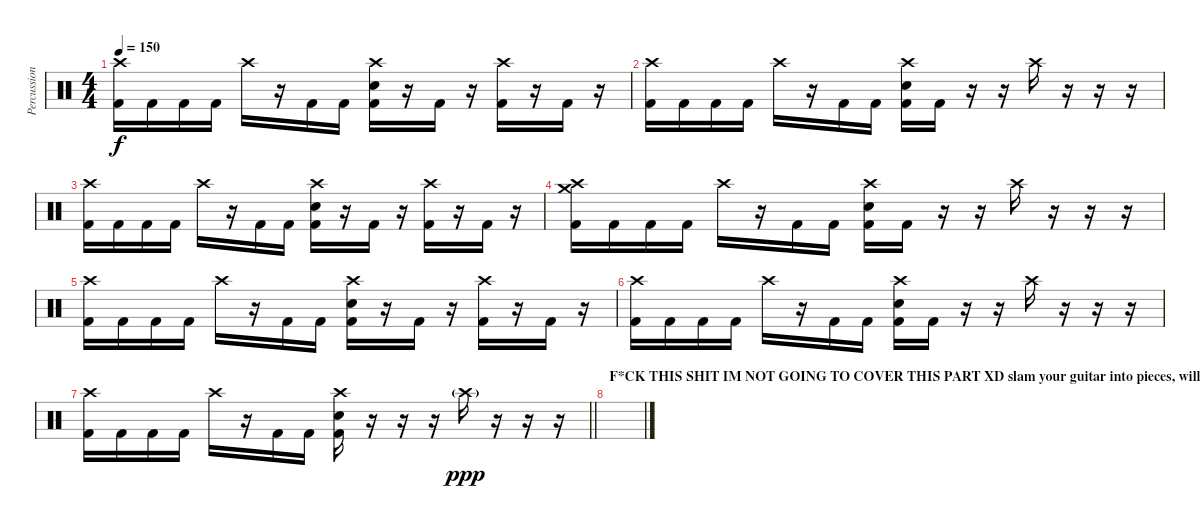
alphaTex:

\track ("Percussion" "Percussion") {instrument percussion}
\staff {score}
\articulation defaults
\ts (4 4)
\tempo 150
\clef neutral
\ks c
("Crash high (hit)" "Kick (hit) 2").16{dy f} "Kick (hit) 2".16 "Kick (hit) 2".16 "Kick (hit) 2".16 "Crash high (hit)".16 r.16 "Kick (hit) 2".16 "Kick (hit) 2".16 ("Crash high (hit)" "Snare (hit) 2" "Kick (hit) 2").16 r.16 "Kick (hit) 2".16 r.16 ("Crash high (hit)" "Kick (hit) 2").16 r.16 "Kick (hit) 2".16 r.16 |
("Crash high (hit)" "Kick (hit) 2").16 "Kick (hit) 2".16 "Kick (hit) 2".16 "Kick (hit) 2".16 "Crash high (hit)".16 r.16 "Kick (hit) 2".16 "Kick (hit) 2".16 ("Crash high (hit)" "Snare (hit) 2" "Kick (hit) 2").16 "Kick (hit) 2".16 r.16 r.16 "Crash high (hit)".16 r.16 r.16 r.16 |
("Crash high (hit)" "Kick (hit) 2").16 "Kick (hit) 2".16 "Kick (hit) 2".16 "Kick (hit) 2".16 "Crash high (hit)".16 r.16 "Kick (hit) 2".16 "Kick (hit) 2".16 ("Crash high (hit)" "Snare (hit) 2" "Kick (hit) 2").16 r.16 "Kick (hit) 2".16 r.16 ("Crash high (hit)" "Kick (hit) 2").16 r.16 "Kick (hit) 2".16 r.16 |
("Crash high (hit)" "Crash medium (hit)" "Kick (hit) 2").16 "Kick (hit) 2".16 "Kick (hit) 2".16 "Kick (hit) 2".16 "Crash high (hit)".16 r.16 "Kick (hit) 2".16 "Kick (hit) 2".16 ("Crash high (hit)" "Snare (hit) 2" "Kick (hit) 2").16 "Kick (hit) 2".16 r.16 r.16 "Crash high (hit)".16 r.16 r.16 r.16 |
("Crash high (hit)" "Kick (hit) 2").16 "Kick (hit) 2".16 "Kick (hit) 2".16 "Kick (hit) 2".16 "Crash high (hit)".16 r.16 "Kick (hit) 2".16 "Kick (hit) 2".16 ("Crash high (hit)" "Snare (hit) 2" "Kick (hit) 2").16 r.16 "Kick (hit) 2".16 r.16 ("Crash high (hit)" "Kick (hit) 2").16 r.16 "Kick (hit) 2".16 r.16 |
("Crash high (hit)" "Kick (hit) 2").16 "Kick (hit) 2".16 "Kick (hit) 2".16 "Kick (hit) 2".16 "Crash high (hit)".16 r.16 "Kick (hit) 2".16 "Kick (hit) 2".16 ("Crash high (hit)" "Snare (hit) 2" "Kick (hit) 2").16 "Kick (hit) 2".16 r.16 r.16 "Crash high (hit)".16 r.16 r.16 r.16 |
\barLineRight lightlight
("Crash high (hit)" "Kick (hit) 2").16 "Kick (hit) 2".16 "Kick (hit) 2".16 "Kick (hit) 2".16 "Crash high (hit)".16 r.16 "Kick (hit) 2".16 "Kick (hit) 2".16 ("Crash high (hit)" "Snare (hit) 2" "Kick (hit) 2").16 r.16 r.16 r.16 "Crash high (hit)"{g}.16{dy ppp} r.16 r.16 r.16 |
\section ("" "F*CK THIS SHIT IM NOT GOING TO COVER THIS PART XD slam your guitar into pieces, will create same sou")
